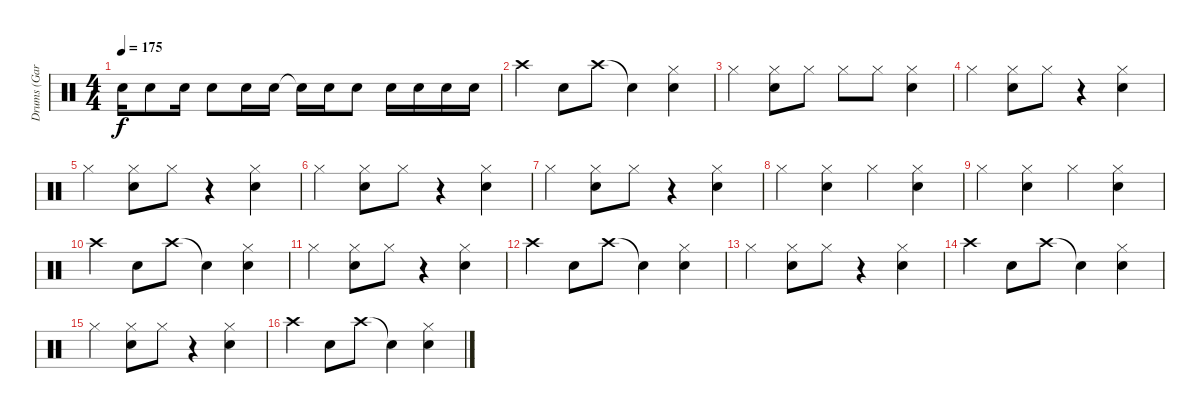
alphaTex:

\track ("Drums (Gar Samuelson)" "Drums (Gar") {instrument percussion}
\staff {score}
\articulation defaults
\ts (4 4)
\tempo 175
\clef neutral
\ks c "Snare (hit) 2".16{dy f} "Snare (hit) 2".8 "Snare (hit) 2".16 "Snare (hit) 2".8 "Snare (hit) 2".16 "Snare (hit) 2".16 "Snare (hit)"{t}.16 "Snare (hit) 2".16 "Snare (hit) 2".8 "Snare (hit) 2".16 "Snare (hit) 2".16 "Snare (hit) 2".16 "Snare (hit) 2".16
|
"Crash high (hit)".4 "Snare (hit) 2".8 "Crash high (hit)".8 "Snare (hit)"{t}.4 ("Hi-Hat (closed)" "Snare (hit) 2").4 |
"Hi-Hat (closed)".4 ("Hi-Hat (closed)" "Snare (hit) 2").8 "Hi-Hat (closed)".8 "Hi-Hat (closed)".8 "Hi-Hat (closed)".8 ("Hi-Hat (closed)" "Snare (hit) 2").4 |
"Hi-Hat (closed)".4 ("Hi-Hat (closed)" "Snare (hit) 2").8 "Hi-Hat (closed)".8 r.4 ("Hi-Hat (closed)" "Snare (hit) 2").4 |
"Hi-Hat (closed)".4 ("Hi-Hat (closed)" "Snare (hit) 2").8 "Hi-Hat (closed)".8 r.4 ("Hi-Hat (closed)" "Snare (hit) 2").4 |
"Hi-Hat (closed)".4 ("Hi-Hat (closed)" "Snare (hit) 2").8 "Hi-Hat (closed)".8 r.4 ("Hi-Hat (closed)" "Snare (hit) 2").4 |
"Hi-Hat (closed)".4 ("Hi-Hat (closed)" "Snare (hit) 2").8 "Hi-Hat (closed)".8 r.4 ("Hi-Hat (closed)" "Snare (hit) 2").4 |
"Hi-Hat (closed)".4 ("Hi-Hat (closed)" "Snare (hit) 2").4 "Hi-Hat (closed)".4 ("Hi-Hat (closed)" "Snare (hit) 2").4 |
"Hi-Hat (closed)".4 ("Hi-Hat (closed)" "Snare (hit) 2").4 "Hi-Hat (closed)".4 ("Hi-Hat (closed)" "Snare (hit) 2").4 |
"Crash high (hit)".4 "Snare (hit) 2".8 "Crash high (hit)".8 "Snare (hit)"{t}.4 ("Hi-Hat (closed)" "Snare (hit) 2").4 |
"Hi-Hat (closed)".4 ("Hi-Hat (closed)" "Snare (hit) 2").8 "Hi-Hat (closed)".8 r.4 ("Hi-Hat (closed)" "Snare (hit) 2").4 |
"Crash high (hit)".4 "Snare (hit) 2".8 "Crash high (hit)".8 "Snare (hit)"{t}.4 ("Hi-Hat (closed)" "Snare (hit) 2").4 |
"Hi-Hat (closed)".4 ("Hi-Hat (closed)" "Snare (hit) 2").8 "Hi-Hat (closed)".8 r.4 ("Hi-Hat (closed)" "Snare (hit) 2").4 |
"Crash high (hit)".4 "Snare (hit) 2".8 "Crash high (hit)".8 "Snare (hit)"{t}.4 ("Hi-Hat (closed)" "Snare (hit) 2").4 |
"Hi-Hat (closed)".4 ("Hi-Hat (closed)" "Snare (hit) 2").8 "Hi-Hat (closed)".8 r.4 ("Hi-Hat (closed)" "Snare (hit) 2").4 |
"Crash high (hit)".4 "Snare (hit) 2".8 "Crash high (hit)".8 "Snare (hit)"{t}.4 ("Hi-Hat (closed)" "Snare (hit) 2").4
